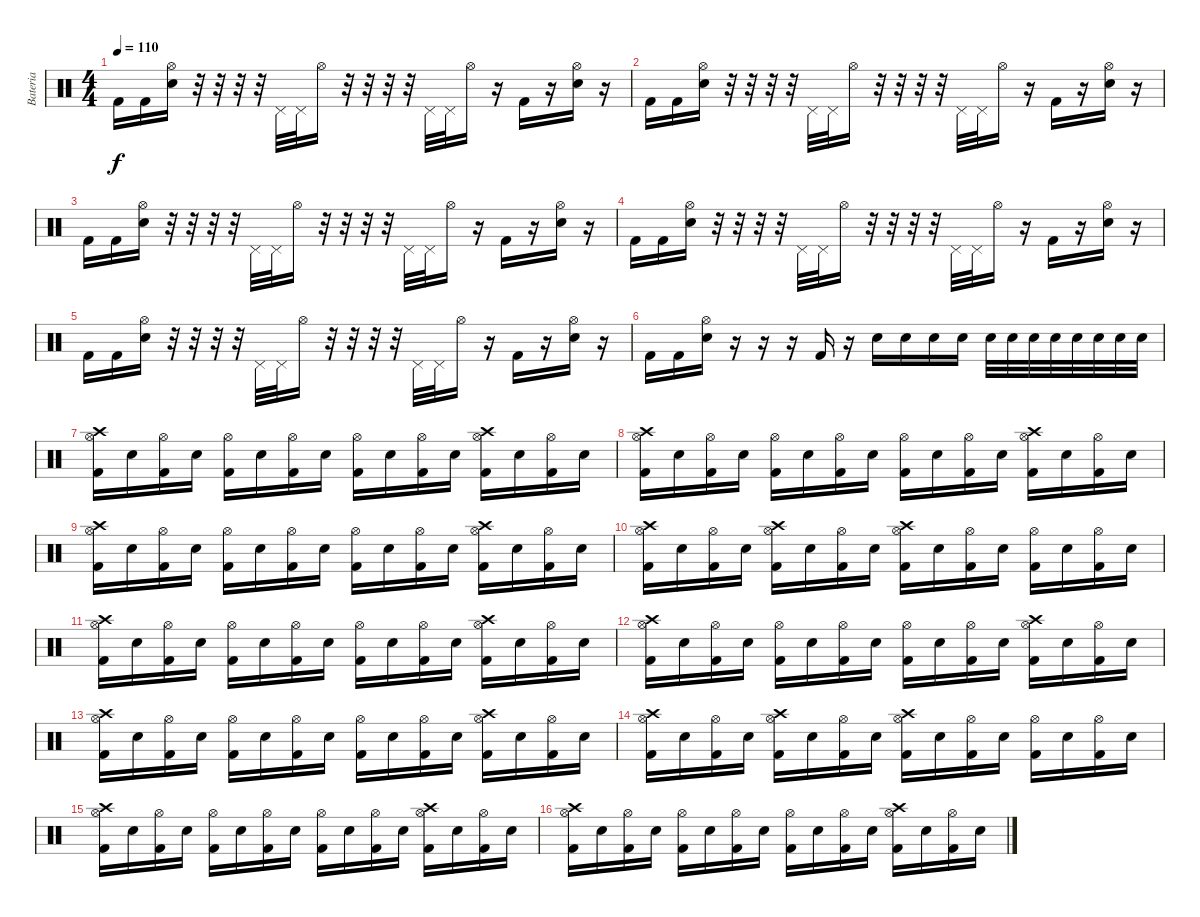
\track ("Bateria" "Bateria") {instrument percussion}
\staff {score}
\articulation defaults
\ts (4 4)
\tempo 110
\clef neutral
\ks c "Kick (hit) 2".16{dy f} "Kick (hit) 2".16
("Hi-Hat (open)" "Electric Snare (hit)").16 r.32 r.32 r.32 r.32 "Pedal Hi-Hat (hit)".32 "Pedal Hi-Hat (hit)".32 "Hi-Hat (open)".16 r.32 r.32 r.32 r.32 "Pedal Hi-Hat (hit)".32 "Pedal Hi-Hat (hit)".32 "Hi-Hat (open)".16 r.16 "Kick (hit) 2".16 r.16 ("Hi-Hat (open)" "Electric Snare (hit)").16 r.16 |
"Kick (hit) 2".16 "Kick (hit) 2".16 ("Hi-Hat (open)" "Electric Snare (hit)").16 r.32 r.32 r.32 r.32 "Pedal Hi-Hat (hit)".32 "Pedal Hi-Hat (hit)".32 "Hi-Hat (open)".16 r.32 r.32 r.32 r.32 "Pedal Hi-Hat (hit)".32 "Pedal Hi-Hat (hit)".32 "Hi-Hat (open)".16 r.16 "Kick (hit) 2".16 r.16 ("Hi-Hat (open)" "Electric Snare (hit)").16 r.16 |
"Kick (hit) 2".16 "Kick (hit) 2".16 ("Hi-Hat (open)" "Electric Snare (hit)").16 r.32 r.32 r.32 r.32 "Pedal Hi-Hat (hit)".32 "Pedal Hi-Hat (hit)".32 "Hi-Hat (open)".16 r.32 r.32 r.32 r.32 "Pedal Hi-Hat (hit)".32 "Pedal Hi-Hat (hit)".32 "Hi-Hat (open)".16 r.16 "Kick (hit) 2".16 r.16 ("Hi-Hat (open)" "Electric Snare (hit)").16 r.16 |
"Kick (hit) 2".16 "Kick (hit) 2".16 ("Hi-Hat (open)" "Electric Snare (hit)").16 r.32 r.32 r.32 r.32 "Pedal Hi-Hat (hit)".32 "Pedal Hi-Hat (hit)".32 "Hi-Hat (open)".16 r.32 r.32 r.32 r.32 "Pedal Hi-Hat (hit)".32 "Pedal Hi-Hat (hit)".32 "Hi-Hat (open)".16 r.16 "Kick (hit) 2".16 r.16 ("Hi-Hat (open)" "Electric Snare (hit)").16 r.16 |
"Kick (hit) 2".16 "Kick (hit) 2".16 ("Hi-Hat (open)" "Electric Snare (hit)").16 r.32 r.32 r.32 r.32 "Pedal Hi-Hat (hit)".32 "Pedal Hi-Hat (hit)".32 "Hi-Hat (open)".16 r.32 r.32 r.32 r.32 "Pedal Hi-Hat (hit)".32 "Pedal Hi-Hat (hit)".32 "Hi-Hat (open)".16 r.16 "Kick (hit) 2".16 r.16 ("Hi-Hat (open)" "Electric Snare (hit)").16 r.16 |
"Kick (hit) 2".16 "Kick (hit) 2".16 ("Hi-Hat (open)" "Electric Snare (hit)").16 r.16 r.16 r.16 "Kick (hit) 2".16 r.16 "Electric Snare (hit)".16 "Electric Snare (hit)".16 "Electric Snare (hit)".16 "Electric Snare (hit)".16 "Electric Snare (hit)".32 "Electric Snare (hit)".32 "Electric Snare (hit)".32 "Electric Snare (hit)".32 "Electric Snare (hit)".32 "Electric Snare (hit)".32 "Electric Snare (hit)".32 "Electric Snare (hit)".32 |
("Crash high (hit)" "Hi-Hat (open)" "Kick (hit) 2").16 "Electric Snare (hit)".16 ("Hi-Hat (open)" "Kick (hit) 2").16 "Electric Snare (hit)".16 ("Hi-Hat (open)" "Kick (hit) 2").16 "Electric Snare (hit)".16 ("Hi-Hat (open)" "Kick (hit) 2").16 "Electric Snare (hit)".16 ("Hi-Hat (open)" "Kick (hit) 2").16 "Electric Snare (hit)".16 ("Hi-Hat (open)" "Kick (hit) 2").16 "Electric Snare (hit)".16 ("Crash high (hit)" "Hi-Hat (open)" "Kick (hit) 2").16 "Electric Snare (hit)".16 ("Hi-Hat (open)" "Kick (hit) 2").16 "Electric Snare (hit)".16 |
("Crash high (hit)" "Hi-Hat (open)" "Kick (hit) 2").16 "Electric Snare (hit)".16 ("Hi-Hat (open)" "Kick (hit) 2").16 "Electric Snare (hit)".16 ("Hi-Hat (open)" "Kick (hit) 2").16 "Electric Snare (hit)".16 ("Hi-Hat (open)" "Kick (hit) 2").16 "Electric Snare (hit)".16 ("Hi-Hat (open)" "Kick (hit) 2").16 "Electric Snare (hit)".16 ("Hi-Hat (open)" "Kick (hit) 2").16 "Electric Snare (hit)".16 ("Crash high (hit)" "Hi-Hat (open)" "Kick (hit) 2").16 "Electric Snare (hit)".16 ("Hi-Hat (open)" "Kick (hit) 2").16 "Electric Snare (hit)".16 |
("Crash high (hit)" "Hi-Hat (open)" "Kick (hit) 2").16 "Electric Snare (hit)".16 ("Hi-Hat (open)" "Kick (hit) 2").16 "Electric Snare (hit)".16 ("Hi-Hat (open)" "Kick (hit) 2").16 "Electric Snare (hit)".16 ("Hi-Hat (open)" "Kick (hit) 2").16 "Electric Snare (hit)".16 ("Hi-Hat (open)" "Kick (hit) 2").16 "Electric Snare (hit)".16 ("Hi-Hat (open)" "Kick (hit) 2").16 "Electric Snare (hit)".16 ("Crash high (hit)" "Hi-Hat (open)" "Kick (hit) 2").16 "Electric Snare (hit)".16 ("Hi-Hat (open)" "Kick (hit) 2").16 "Electric Snare (hit)".16 |
("Crash high (hit)" "Hi-Hat (open)" "Kick (hit) 2").16 "Electric Snare (hit)".16 ("Hi-Hat (open)" "Kick (hit) 2").16 "Electric Snare (hit)".16 ("Crash high (hit)" "Hi-Hat (open)" "Kick (hit) 2").16 "Electric Snare (hit)".16 ("Hi-Hat (open)" "Kick (hit) 2").16 "Electric Snare (hit)".16 ("Crash high (hit)" "Hi-Hat (open)" "Kick (hit) 2").16 "Electric Snare (hit)".16 ("Hi-Hat (open)" "Kick (hit) 2").16 "Electric Snare (hit)".16 ("Hi-Hat (open)" "Kick (hit) 2").16 "Electric Snare (hit)".16 ("Hi-Hat (open)" "Kick (hit) 2").16 "Electric Snare (hit)".16 |
("Crash high (hit)" "Hi-Hat (open)" "Kick (hit) 2").16 "Electric Snare (hit)".16 ("Hi-Hat (open)" "Kick (hit) 2").16 "Electric Snare (hit)".16 ("Hi-Hat (open)" "Kick (hit) 2").16 "Electric Snare (hit)".16 ("Hi-Hat (open)" "Kick (hit) 2").16 "Electric Snare (hit)".16 ("Hi-Hat (open)" "Kick (hit) 2").16 "Electric Snare (hit)".16 ("Hi-Hat (open)" "Kick (hit) 2").16 "Electric Snare (hit)".16 ("Crash high (hit)" "Hi-Hat (open)" "Kick (hit) 2").16 "Electric Snare (hit)".16 ("Hi-Hat (open)" "Kick (hit) 2").16 "Electric Snare (hit)".16 |
("Crash high (hit)" "Hi-Hat (open)" "Kick (hit) 2").16 "Electric Snare (hit)".16 ("Hi-Hat (open)" "Kick (hit) 2").16 "Electric Snare (hit)".16 ("Hi-Hat (open)" "Kick (hit) 2").16 "Electric Snare (hit)".16 ("Hi-Hat (open)" "Kick (hit) 2").16 "Electric Snare (hit)".16 ("Hi-Hat (open)" "Kick (hit) 2").16 "Electric Snare (hit)".16 ("Hi-Hat (open)" "Kick (hit) 2").16 "Electric Snare (hit)".16 ("Crash high (hit)" "Hi-Hat (open)" "Kick (hit) 2").16 "Electric Snare (hit)".16 ("Hi-Hat (open)" "Kick (hit) 2").16 "Electric Snare (hit)".16 |
("Crash high (hit)" "Hi-Hat (open)" "Kick (hit) 2").16 "Electric Snare (hit)".16 ("Hi-Hat (open)" "Kick (hit) 2").16 "Electric Snare (hit)".16 ("Hi-Hat (open)" "Kick (hit) 2").16 "Electric Snare (hit)".16 ("Hi-Hat (open)" "Kick (hit) 2").16 "Electric Snare (hit)".16 ("Hi-Hat (open)" "Kick (hit) 2").16 "Electric Snare (hit)".16 ("Hi-Hat (open)" "Kick (hit) 2").16 "Electric Snare (hit)".16 ("Crash high (hit)" "Hi-Hat (open)" "Kick (hit) 2").16 "Electric Snare (hit)".16 ("Hi-Hat (open)" "Kick (hit) 2").16 "Electric Snare (hit)".16 |
("Crash high (hit)" "Hi-Hat (open)" "Kick (hit) 2").16 "Electric Snare (hit)".16 ("Hi-Hat (open)" "Kick (hit) 2").16 "Electric Snare (hit)".16 ("Crash high (hit)" "Hi-Hat (open)" "Kick (hit) 2").16 "Electric Snare (hit)".16 ("Hi-Hat (open)" "Kick (hit) 2").16 "Electric Snare (hit)".16 ("Crash high (hit)" "Hi-Hat (open)" "Kick (hit) 2").16 "Electric Snare (hit)".16 ("Hi-Hat (open)" "Kick (hit) 2").16 "Electric Snare (hit)".16 ("Hi-Hat (open)" "Kick (hit) 2").16 "Electric Snare (hit)".16 ("Hi-Hat (open)" "Kick (hit) 2").16 "Electric Snare (hit)".16 |
("Crash high (hit)" "Hi-Hat (open)" "Kick (hit) 2").16 "Electric Snare (hit)".16 ("Hi-Hat (open)" "Kick (hit) 2").16 "Electric Snare (hit)".16 ("Hi-Hat (open)" "Kick (hit) 2").16 "Electric Snare (hit)".16 ("Hi-Hat (open)" "Kick (hit) 2").16 "Electric Snare (hit)".16 ("Hi-Hat (open)" "Kick (hit) 2").16 "Electric Snare (hit)".16 ("Hi-Hat (open)" "Kick (hit) 2").16 "Electric Snare (hit)".16 ("Crash high (hit)" "Hi-Hat (open)" "Kick (hit) 2").16 "Electric Snare (hit)".16 ("Hi-Hat (open)" "Kick (hit) 2").16 "Electric Snare (hit)".16 |
("Crash high (hit)" "Hi-Hat (open)" "Kick (hit) 2").16 "Electric Snare (hit)".16 ("Hi-Hat (open)" "Kick (hit) 2").16 "Electric Snare (hit)".16 ("Hi-Hat (open)" "Kick (hit) 2").16 "Electric Snare (hit)".16 ("Hi-Hat (open)" "Kick (hit) 2").16 "Electric Snare (hit)".16 ("Hi-Hat (open)" "Kick (hit) 2").16 "Electric Snare (hit)".16 ("Hi-Hat (open)" "Kick (hit) 2").16 "Electric Snare (hit)".16 ("Crash high (hit)" "Hi-Hat (open)" "Kick (hit) 2").16 "Electric Snare (hit)".16 ("Hi-Hat (open)" "Kick (hit) 2").16 "Electric Snare (hit)".16
